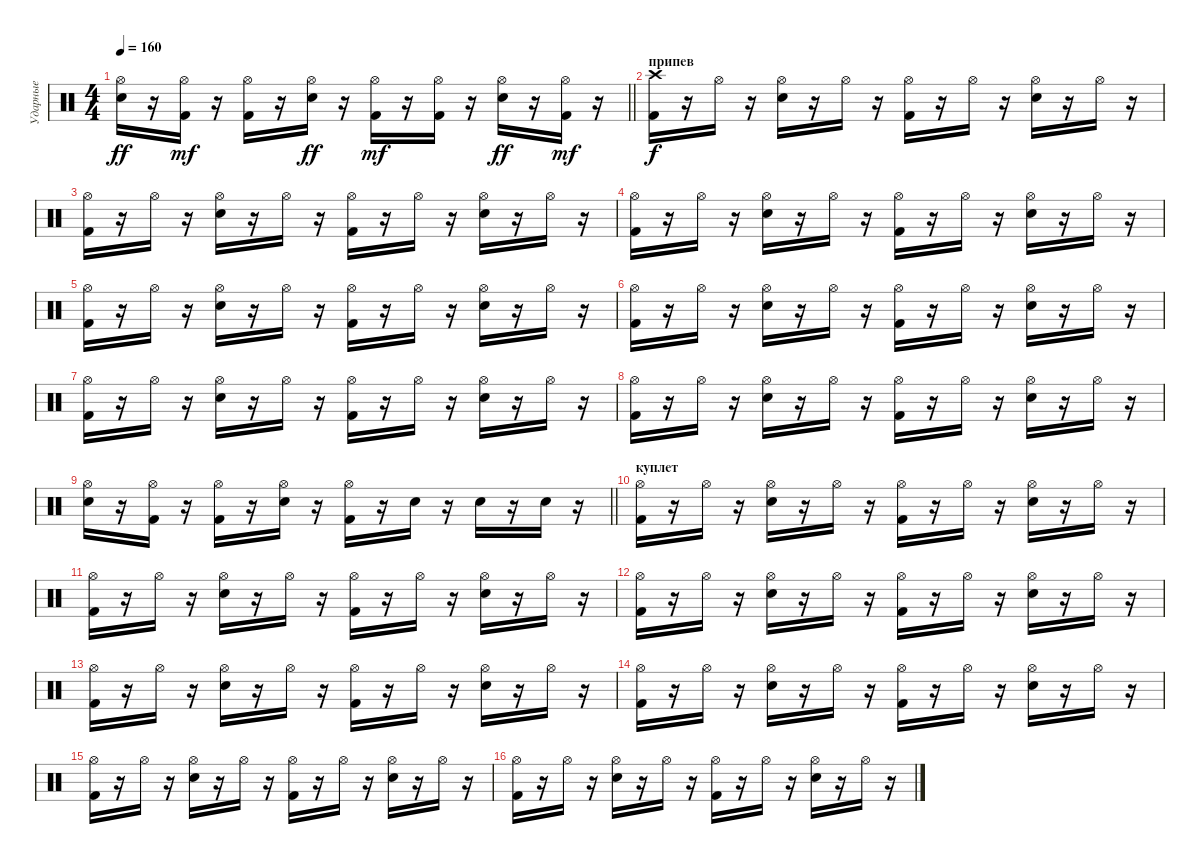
\track ("Ударные" "Ударные") {instrument percussion}
\staff {score}
\articulation defaults
\ts (4 4)
\tempo 160
\clef neutral
\barLineRight lightlight
\ks c
("Hi-Hat (open)" "Electric Snare (hit)").16{dy ff} r.16 ("Hi-Hat (open)" "Kick (hit) 2").16{dy mf} r.16 ("Hi-Hat (open)" "Kick (hit) 2").16 r.16 ("Hi-Hat (open)" "Electric Snare (hit)").16{dy ff} r.16 ("Hi-Hat (open)" "Kick (hit) 2").16{dy mf} r.16 ("Hi-Hat (open)" "Kick (hit) 2").16 r.16 ("Hi-Hat (open)" "Electric Snare (hit)").16{dy ff} r.16 ("Hi-Hat (open)" "Kick (hit) 2").16{dy mf} r.16 |
\section ("" "припев")
("Crash high (hit)" "Kick (hit) 2").16{dy f} r.16 "Hi-Hat (open)".16 r.16 ("Hi-Hat (open)" "Electric Snare (hit)").16 r.16 "Hi-Hat (open)".16 r.16 ("Hi-Hat (open)" "Kick (hit) 2").16 r.16 "Hi-Hat (open)".16 r.16 ("Hi-Hat (open)" "Electric Snare (hit)").16 r.16 "Hi-Hat (open)".16 r.16 |
("Hi-Hat (open)" "Kick (hit) 2").16 r.16 "Hi-Hat (open)".16 r.16 ("Hi-Hat (open)" "Electric Snare (hit)").16 r.16 "Hi-Hat (open)".16 r.16 ("Hi-Hat (open)" "Kick (hit) 2").16 r.16 "Hi-Hat (open)".16 r.16 ("Hi-Hat (open)" "Electric Snare (hit)").16 r.16 "Hi-Hat (open)".16 r.16 |
("Hi-Hat (open)" "Kick (hit) 2").16 r.16 "Hi-Hat (open)".16 r.16 ("Hi-Hat (open)" "Electric Snare (hit)").16 r.16 "Hi-Hat (open)".16 r.16 ("Hi-Hat (open)" "Kick (hit) 2").16 r.16 "Hi-Hat (open)".16 r.16 ("Hi-Hat (open)" "Electric Snare (hit)").16 r.16 "Hi-Hat (open)".16 r.16 |
("Hi-Hat (open)" "Kick (hit) 2").16 r.16 "Hi-Hat (open)".16 r.16 ("Hi-Hat (open)" "Electric Snare (hit)").16 r.16 "Hi-Hat (open)".16 r.16 ("Hi-Hat (open)" "Kick (hit) 2").16 r.16 "Hi-Hat (open)".16 r.16 ("Hi-Hat (open)" "Electric Snare (hit)").16 r.16 "Hi-Hat (open)".16 r.16 |
("Hi-Hat (open)" "Kick (hit) 2").16 r.16 "Hi-Hat (open)".16 r.16 ("Hi-Hat (open)" "Electric Snare (hit)").16 r.16 "Hi-Hat (open)".16 r.16 ("Hi-Hat (open)" "Kick (hit) 2").16 r.16 "Hi-Hat (open)".16 r.16 ("Hi-Hat (open)" "Electric Snare (hit)").16 r.16 "Hi-Hat (open)".16 r.16 |
("Hi-Hat (open)" "Kick (hit) 2").16 r.16 "Hi-Hat (open)".16 r.16 ("Hi-Hat (open)" "Electric Snare (hit)").16 r.16 "Hi-Hat (open)".16 r.16 ("Hi-Hat (open)" "Kick (hit) 2").16 r.16 "Hi-Hat (open)".16 r.16 ("Hi-Hat (open)" "Electric Snare (hit)").16 r.16 "Hi-Hat (open)".16 r.16 |
("Hi-Hat (open)" "Kick (hit) 2").16 r.16 "Hi-Hat (open)".16 r.16 ("Hi-Hat (open)" "Electric Snare (hit)").16 r.16 "Hi-Hat (open)".16 r.16 ("Hi-Hat (open)" "Kick (hit) 2").16 r.16 "Hi-Hat (open)".16 r.16 ("Hi-Hat (open)" "Electric Snare (hit)").16 r.16 "Hi-Hat (open)".16 r.16 |
\barLineRight lightlight
("Hi-Hat (open)" "Electric Snare (hit)").16 r.16 ("Hi-Hat (open)" "Kick (hit) 2").16 r.16 ("Hi-Hat (open)" "Kick (hit) 2").16 r.16 ("Hi-Hat (open)" "Electric Snare (hit)").16 r.16 ("Hi-Hat (open)" "Kick (hit) 2").16 r.16 "Electric Snare (hit)".16 r.16 "Electric Snare (hit)".16 r.16 "Electric Snare (hit)".16 r.16 |
\section ("" "куплет")
("Hi-Hat (open)" "Kick (hit) 2").16 r.16 "Hi-Hat (open)".16 r.16 ("Hi-Hat (open)" "Electric Snare (hit)").16 r.16 "Hi-Hat (open)".16 r.16 ("Hi-Hat (open)" "Kick (hit) 2").16 r.16 "Hi-Hat (open)".16 r.16 ("Hi-Hat (open)" "Electric Snare (hit)").16 r.16 "Hi-Hat (open)".16 r.16 |
("Hi-Hat (open)" "Kick (hit) 2").16 r.16 "Hi-Hat (open)".16 r.16 ("Hi-Hat (open)" "Electric Snare (hit)").16 r.16 "Hi-Hat (open)".16 r.16 ("Hi-Hat (open)" "Kick (hit) 2").16 r.16 "Hi-Hat (open)".16 r.16 ("Hi-Hat (open)" "Electric Snare (hit)").16 r.16 "Hi-Hat (open)".16 r.16 |
("Hi-Hat (open)" "Kick (hit) 2").16 r.16 "Hi-Hat (open)".16 r.16 ("Hi-Hat (open)" "Electric Snare (hit)").16 r.16 "Hi-Hat (open)".16 r.16 ("Hi-Hat (open)" "Kick (hit) 2").16 r.16 "Hi-Hat (open)".16 r.16 ("Hi-Hat (open)" "Electric Snare (hit)").16 r.16 "Hi-Hat (open)".16 r.16 |
("Hi-Hat (open)" "Kick (hit) 2").16 r.16 "Hi-Hat (open)".16 r.16 ("Hi-Hat (open)" "Electric Snare (hit)").16 r.16 "Hi-Hat (open)".16 r.16 ("Hi-Hat (open)" "Kick (hit) 2").16 r.16 "Hi-Hat (open)".16 r.16 ("Hi-Hat (open)" "Electric Snare (hit)").16 r.16 "Hi-Hat (open)".16 r.16 |
("Hi-Hat (open)" "Kick (hit) 2").16 r.16 "Hi-Hat (open)".16 r.16 ("Hi-Hat (open)" "Electric Snare (hit)").16 r.16 "Hi-Hat (open)".16 r.16 ("Hi-Hat (open)" "Kick (hit) 2").16 r.16 "Hi-Hat (open)".16 r.16 ("Hi-Hat (open)" "Electric Snare (hit)").16 r.16 "Hi-Hat (open)".16 r.16 |
("Hi-Hat (open)" "Kick (hit) 2").16 r.16 "Hi-Hat (open)".16 r.16 ("Hi-Hat (open)" "Electric Snare (hit)").16 r.16 "Hi-Hat (open)".16 r.16 ("Hi-Hat (open)" "Kick (hit) 2").16 r.16 "Hi-Hat (open)".16 r.16 ("Hi-Hat (open)" "Electric Snare (hit)").16 r.16 "Hi-Hat (open)".16 r.16 |
("Hi-Hat (open)" "Kick (hit) 2").16 r.16 "Hi-Hat (open)".16 r.16 ("Hi-Hat (open)" "Electric Snare (hit)").16 r.16 "Hi-Hat (open)".16 r.16 ("Hi-Hat (open)" "Kick (hit) 2").16 r.16 "Hi-Hat (open)".16 r.16 ("Hi-Hat (open)" "Electric Snare (hit)").16 r.16 "Hi-Hat (open)".16 r.16
